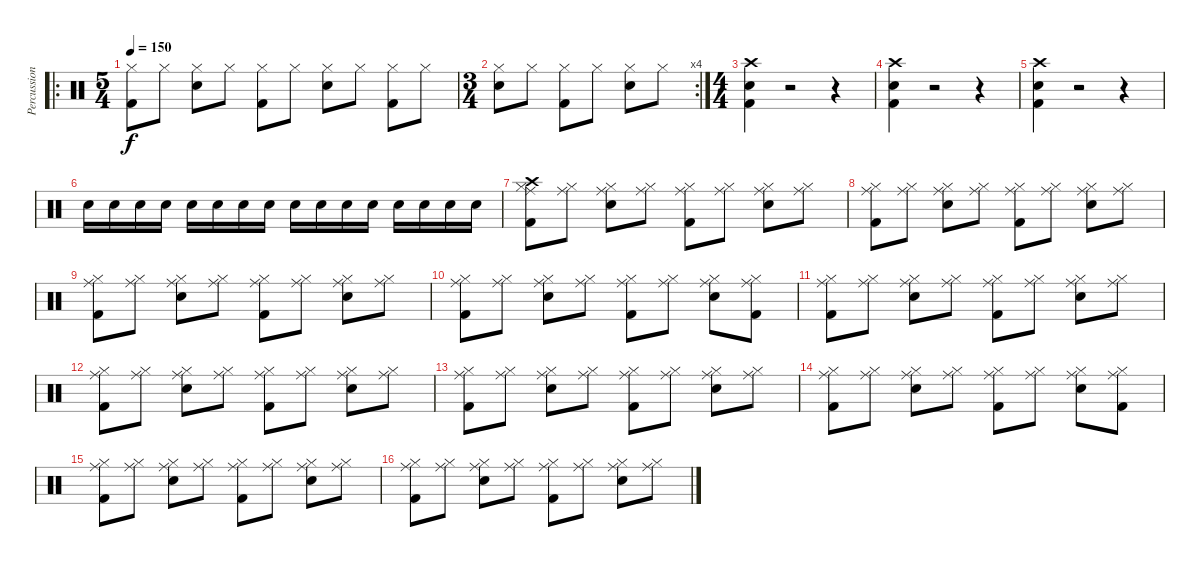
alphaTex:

\track ("Percussion" "Percussion") {instrument percussion}
\staff {score}
\articulation defaults
\ro
\ts (5 4)
\tempo 150
\clef neutral
\ks c
("Hi-Hat (closed)" "Kick (hit) 2").8{dy f} "Hi-Hat (closed)".8 ("Hi-Hat (closed)" "Electric Snare (hit)").8 "Hi-Hat (closed)".8 ("Hi-Hat (closed)" "Kick (hit) 2").8 "Hi-Hat (closed)".8 ("Hi-Hat (closed)" "Electric Snare (hit)").8 "Hi-Hat (closed)".8 ("Hi-Hat (closed)" "Kick (hit) 2").8 "Hi-Hat (closed)".8 |
\rc 4
\ts (3 4)
("Hi-Hat (closed)" "Electric Snare (hit)").8 "Hi-Hat (closed)".8 ("Hi-Hat (closed)" "Kick (hit) 2").8 "Hi-Hat (closed)".8 ("Hi-Hat (closed)" "Electric Snare (hit)").8 "Hi-Hat (closed)".8 |
\ts (4 4)
("Crash high (hit)" "Electric Snare (hit)" "Kick (hit) 2").4 r.2 r.4 |
("Crash high (hit)" "Electric Snare (hit)" "Kick (hit) 2").4 r.2 r.4 |
("Crash high (hit)" "Electric Snare (hit)" "Kick (hit) 2").4 r.2 r.4 |
"Electric Snare (hit)".16 "Electric Snare (hit)".16 "Electric Snare (hit)".16 "Electric Snare (hit)".16 "Electric Snare (hit)".16 "Electric Snare (hit)".16 "Electric Snare (hit)".16 "Electric Snare (hit)".16 "Electric Snare (hit)".16 "Electric Snare (hit)".16 "Electric Snare (hit)".16 "Electric Snare (hit)".16 "Electric Snare (hit)".16 "Electric Snare (hit)".16 "Electric Snare (hit)".16 "Electric Snare (hit)".16 |
("Hi-Hat (closed)" "Crash high (hit)" "Ride (middle)" "Kick (hit) 2").8 ("Hi-Hat (closed)" "Ride (middle)").8 ("Hi-Hat (closed)" "Ride (middle)" "Electric Snare (hit)").8 ("Hi-Hat (closed)" "Ride (middle)").8 ("Hi-Hat (closed)" "Ride (middle)" "Kick (hit) 2").8 ("Hi-Hat (closed)" "Ride (middle)").8 ("Hi-Hat (closed)" "Ride (middle)" "Electric Snare (hit)").8 ("Hi-Hat (closed)" "Ride (middle)").8 |
("Hi-Hat (closed)" "Ride (middle)" "Kick (hit) 2").8 ("Hi-Hat (closed)" "Ride (middle)").8 ("Hi-Hat (closed)" "Ride (middle)" "Electric Snare (hit)").8 ("Hi-Hat (closed)" "Ride (middle)").8 ("Hi-Hat (closed)" "Ride (middle)" "Kick (hit) 2").8 ("Hi-Hat (closed)" "Ride (middle)").8 ("Hi-Hat (closed)" "Ride (middle)" "Electric Snare (hit)").8 ("Hi-Hat (closed)" "Ride (middle)").8 |
("Hi-Hat (closed)" "Ride (middle)" "Kick (hit) 2").8 ("Hi-Hat (closed)" "Ride (middle)").8 ("Hi-Hat (closed)" "Ride (middle)" "Electric Snare (hit)").8 ("Hi-Hat (closed)" "Ride (middle)").8 ("Hi-Hat (closed)" "Ride (middle)" "Kick (hit) 2").8 ("Hi-Hat (closed)" "Ride (middle)").8 ("Hi-Hat (closed)" "Ride (middle)" "Electric Snare (hit)").8 ("Hi-Hat (closed)" "Ride (middle)").8 |
("Hi-Hat (closed)" "Ride (middle)" "Kick (hit) 2").8 ("Hi-Hat (closed)" "Ride (middle)").8 ("Hi-Hat (closed)" "Ride (middle)" "Electric Snare (hit)").8 ("Hi-Hat (closed)" "Ride (middle)").8 ("Hi-Hat (closed)" "Ride (middle)" "Kick (hit) 2").8 ("Hi-Hat (closed)" "Ride (middle)").8 ("Hi-Hat (closed)" "Ride (middle)" "Electric Snare (hit)").8 ("Hi-Hat (closed)" "Ride (middle)" "Kick (hit) 2").8 |
("Hi-Hat (closed)" "Ride (middle)" "Kick (hit) 2").8 ("Hi-Hat (closed)" "Ride (middle)").8 ("Hi-Hat (closed)" "Ride (middle)" "Electric Snare (hit)").8 ("Hi-Hat (closed)" "Ride (middle)").8 ("Hi-Hat (closed)" "Ride (middle)" "Kick (hit) 2").8 ("Hi-Hat (closed)" "Ride (middle)").8 ("Hi-Hat (closed)" "Ride (middle)" "Electric Snare (hit)").8 ("Hi-Hat (closed)" "Ride (middle)").8 |
("Hi-Hat (closed)" "Ride (middle)" "Kick (hit) 2").8 ("Hi-Hat (closed)" "Ride (middle)").8 ("Hi-Hat (closed)" "Ride (middle)" "Electric Snare (hit)").8 ("Hi-Hat (closed)" "Ride (middle)").8 ("Hi-Hat (closed)" "Ride (middle)" "Kick (hit) 2").8 ("Hi-Hat (closed)" "Ride (middle)").8 ("Hi-Hat (closed)" "Ride (middle)" "Electric Snare (hit)").8 ("Hi-Hat (closed)" "Ride (middle)").8 |
("Hi-Hat (closed)" "Ride (middle)" "Kick (hit) 2").8 ("Hi-Hat (closed)" "Ride (middle)").8 ("Hi-Hat (closed)" "Ride (middle)" "Electric Snare (hit)").8 ("Hi-Hat (closed)" "Ride (middle)").8 ("Hi-Hat (closed)" "Ride (middle)" "Kick (hit) 2").8 ("Hi-Hat (closed)" "Ride (middle)").8 ("Hi-Hat (closed)" "Ride (middle)" "Electric Snare (hit)").8 ("Hi-Hat (closed)" "Ride (middle)").8 |
("Hi-Hat (closed)" "Ride (middle)" "Kick (hit) 2").8 ("Hi-Hat (closed)" "Ride (middle)").8 ("Hi-Hat (closed)" "Ride (middle)" "Electric Snare (hit)").8 ("Hi-Hat (closed)" "Ride (middle)").8 ("Hi-Hat (closed)" "Ride (middle)" "Kick (hit) 2").8 ("Hi-Hat (closed)" "Ride (middle)").8 ("Hi-Hat (closed)" "Ride (middle)" "Electric Snare (hit)").8 ("Hi-Hat (closed)" "Ride (middle)" "Kick (hit) 2").8 |
("Hi-Hat (closed)" "Ride (middle)" "Kick (hit) 2").8 ("Hi-Hat (closed)" "Ride (middle)").8 ("Hi-Hat (closed)" "Ride (middle)" "Electric Snare (hit)").8 ("Hi-Hat (closed)" "Ride (middle)").8 ("Hi-Hat (closed)" "Ride (middle)" "Kick (hit) 2").8 ("Hi-Hat (closed)" "Ride (middle)").8 ("Hi-Hat (closed)" "Ride (middle)" "Electric Snare (hit)").8 ("Hi-Hat (closed)" "Ride (middle)").8 |
("Hi-Hat (closed)" "Ride (middle)" "Kick (hit) 2").8 ("Hi-Hat (closed)" "Ride (middle)").8 ("Hi-Hat (closed)" "Ride (middle)" "Electric Snare (hit)").8 ("Hi-Hat (closed)" "Ride (middle)").8 ("Hi-Hat (closed)" "Ride (middle)" "Kick (hit) 2").8 ("Hi-Hat (closed)" "Ride (middle)").8 ("Hi-Hat (closed)" "Ride (middle)" "Electric Snare (hit)").8 ("Hi-Hat (closed)" "Ride (middle)").8
